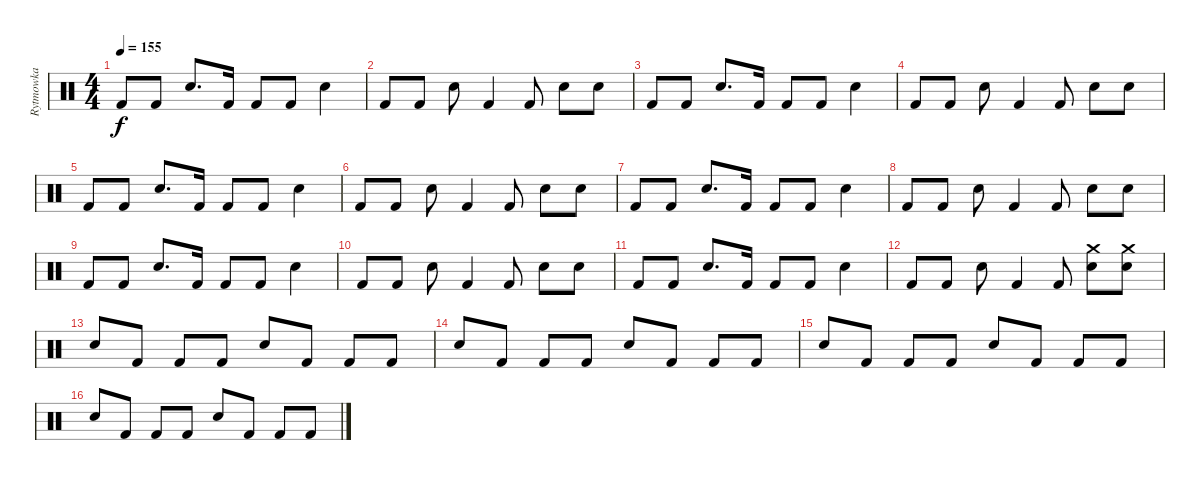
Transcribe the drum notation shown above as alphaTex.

\track ("Rytmowka" "Rytmowka") {instrument percussion}
\staff {score}
\articulation defaults
\ts (4 4)
\tempo 155
\clef neutral
\ks c "Kick (hit) 2".8{dy f} "Kick (hit) 2".8 "Snare (hit) 2".8{d} "Kick (hit) 2".16 "Kick (hit) 2".8 "Kick (hit) 2".8 "Snare (hit) 2".4
|
"Kick (hit) 2".8 "Kick (hit) 2".8 "Snare (hit) 2".8 "Kick (hit) 2".4 "Kick (hit) 2".8 "Snare (hit) 2".8 "Snare (hit) 2".8 |
"Kick (hit) 2".8 "Kick (hit) 2".8 "Snare (hit) 2".8{d} "Kick (hit) 2".16 "Kick (hit) 2".8 "Kick (hit) 2".8 "Snare (hit) 2".4 |
"Kick (hit) 2".8 "Kick (hit) 2".8 "Snare (hit) 2".8 "Kick (hit) 2".4 "Kick (hit) 2".8 "Snare (hit) 2".8 "Snare (hit) 2".8 |
"Kick (hit) 2".8 "Kick (hit) 2".8 "Snare (hit) 2".8{d} "Kick (hit) 2".16 "Kick (hit) 2".8 "Kick (hit) 2".8 "Snare (hit) 2".4 |
"Kick (hit) 2".8 "Kick (hit) 2".8 "Snare (hit) 2".8 "Kick (hit) 2".4 "Kick (hit) 2".8 "Snare (hit) 2".8 "Snare (hit) 2".8 |
"Kick (hit) 2".8 "Kick (hit) 2".8 "Snare (hit) 2".8{d} "Kick (hit) 2".16 "Kick (hit) 2".8 "Kick (hit) 2".8 "Snare (hit) 2".4 |
"Kick (hit) 2".8 "Kick (hit) 2".8 "Snare (hit) 2".8 "Kick (hit) 2".4 "Kick (hit) 2".8 "Snare (hit) 2".8 "Snare (hit) 2".8 |
"Kick (hit) 2".8 "Kick (hit) 2".8 "Snare (hit) 2".8{d} "Kick (hit) 2".16 "Kick (hit) 2".8 "Kick (hit) 2".8 "Snare (hit) 2".4 |
"Kick (hit) 2".8 "Kick (hit) 2".8 "Snare (hit) 2".8 "Kick (hit) 2".4 "Kick (hit) 2".8 "Snare (hit) 2".8 "Snare (hit) 2".8 |
"Kick (hit) 2".8 "Kick (hit) 2".8 "Snare (hit) 2".8{d} "Kick (hit) 2".16 "Kick (hit) 2".8 "Kick (hit) 2".8 "Snare (hit) 2".4 |
"Kick (hit) 2".8 "Kick (hit) 2".8 "Snare (hit) 2".8 "Kick (hit) 2".4 "Kick (hit) 2".8 ("Crash medium (hit)" "Snare (hit) 2").8 ("Crash medium (hit)" "Snare (hit) 2").8 |
"Snare (hit) 2".8 "Kick (hit) 2".8 "Kick (hit) 2".8 "Kick (hit) 2".8 "Snare (hit) 2".8 "Kick (hit) 2".8 "Kick (hit) 2".8 "Kick (hit) 2".8 |
"Snare (hit) 2".8 "Kick (hit) 2".8 "Kick (hit) 2".8 "Kick (hit) 2".8 "Snare (hit) 2".8 "Kick (hit) 2".8 "Kick (hit) 2".8 "Kick (hit) 2".8 |
"Snare (hit) 2".8 "Kick (hit) 2".8 "Kick (hit) 2".8 "Kick (hit) 2".8 "Snare (hit) 2".8 "Kick (hit) 2".8 "Kick (hit) 2".8 "Kick (hit) 2".8 |
"Snare (hit) 2".8 "Kick (hit) 2".8 "Kick (hit) 2".8 "Kick (hit) 2".8 "Snare (hit) 2".8 "Kick (hit) 2".8 "Kick (hit) 2".8 "Kick (hit) 2".8
